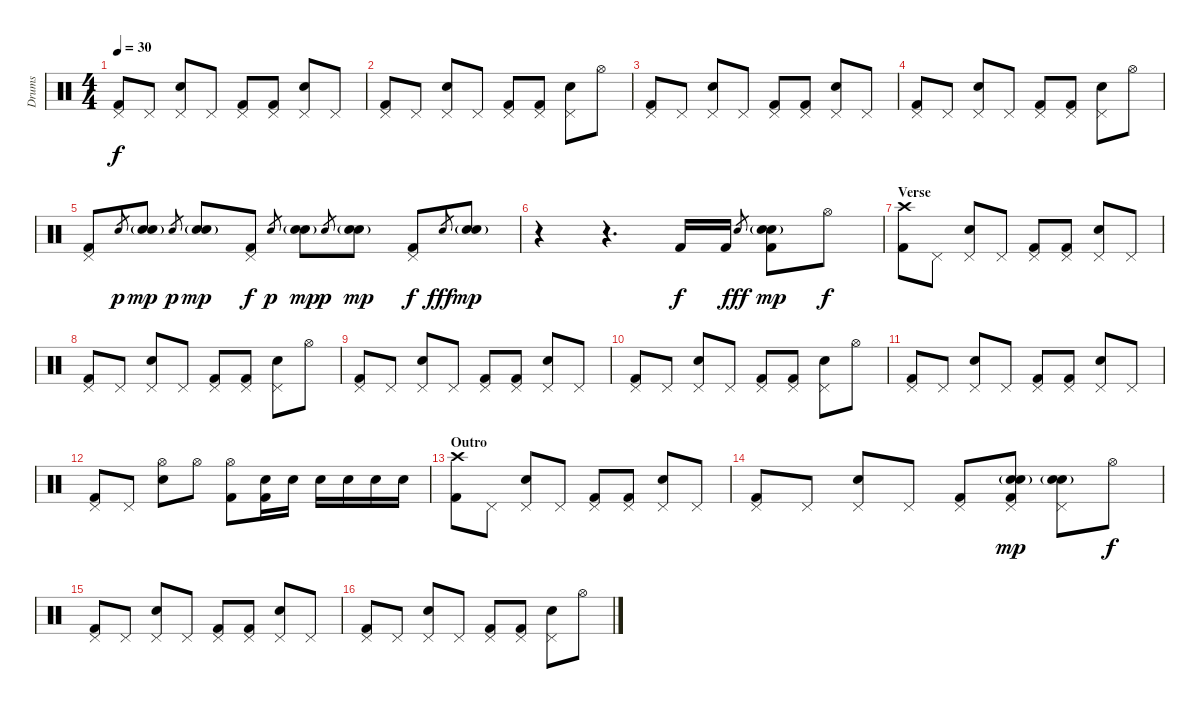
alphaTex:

\track ("Drums" "Drums") {instrument percussion}
\staff {score}
\articulation defaults
\ts (4 4)
\tempo 30
\clef neutral
\ks c
("Pedal Hi-Hat (hit)" "Kick (hit) 2").8{dy f} "Pedal Hi-Hat (hit)".8 ("Pedal Hi-Hat (hit)" "Snare (hit) 2").8 "Pedal Hi-Hat (hit)".8 ("Pedal Hi-Hat (hit)" "Kick (hit) 2").8 ("Pedal Hi-Hat (hit)" "Kick (hit) 2").8 ("Pedal Hi-Hat (hit)" "Snare (hit) 2").8 "Pedal Hi-Hat (hit)".8 |
("Pedal Hi-Hat (hit)" "Kick (hit) 2").8 "Pedal Hi-Hat (hit)".8 ("Pedal Hi-Hat (hit)" "Snare (hit) 2").8 "Pedal Hi-Hat (hit)".8 ("Pedal Hi-Hat (hit)" "Kick (hit) 2").8 ("Pedal Hi-Hat (hit)" "Kick (hit) 2").8 ("Pedal Hi-Hat (hit)" "Snare (hit) 2").8 "Hi-Hat (open)".8 |
("Pedal Hi-Hat (hit)" "Kick (hit) 2").8 "Pedal Hi-Hat (hit)".8 ("Pedal Hi-Hat (hit)" "Snare (hit) 2").8 "Pedal Hi-Hat (hit)".8 ("Pedal Hi-Hat (hit)" "Kick (hit) 2").8 ("Pedal Hi-Hat (hit)" "Kick (hit) 2").8 ("Pedal Hi-Hat (hit)" "Snare (hit) 2").8 "Pedal Hi-Hat (hit)".8 |
("Pedal Hi-Hat (hit)" "Kick (hit) 2").8 "Pedal Hi-Hat (hit)".8 ("Pedal Hi-Hat (hit)" "Snare (hit) 2").8 "Pedal Hi-Hat (hit)".8 ("Pedal Hi-Hat (hit)" "Kick (hit) 2").8 ("Pedal Hi-Hat (hit)" "Kick (hit) 2").8 ("Pedal Hi-Hat (hit)" "Snare (hit) 2").8 "Hi-Hat (open)".8 |
("Pedal Hi-Hat (hit)" "Kick (hit) 2").8 "Snare (hit) 2".8{gr dy p} ("Snare (hit) 2" "Electric Snare (hit)"{g}).8{dy mp} "Snare (hit) 2".8{gr dy p} ("Snare (hit) 2" "Electric Snare (hit)"{g}).8{dy mp} ("Pedal Hi-Hat (hit)" "Kick (hit) 2").8{dy f} "Snare (hit) 2".8{gr dy p} ("Snare (hit) 2" "Electric Snare (hit)"{g}).8{dy mp} "Snare (hit) 2".8{gr dy p} ("Snare (hit) 2" "Electric Snare (hit)"{g}).8{dy mp} ("Pedal Hi-Hat (hit)" "Kick (hit) 2").8{dy f} "Snare (hit) 2".8{gr dy fff} ("Snare (hit) 2" "Electric Snare (hit)"{g}).8{dy mp} |
r.4 r.4{d} "Kick (hit) 2".16{dy f} "Kick (hit) 2".16 "Snare (hit) 2".8{gr dy fff} ("Snare (hit) 2" "Electric Snare (hit)"{g} "Kick (hit) 2").8{dy mp} "Hi-Hat (open)".8{dy f} |
\section ("" "Verse")
("Crash high (hit)" "Kick (hit) 2").8 "Pedal Hi-Hat (hit)".8 ("Pedal Hi-Hat (hit)" "Snare (hit) 2").8 "Pedal Hi-Hat (hit)".8 ("Pedal Hi-Hat (hit)" "Kick (hit) 2").8 ("Pedal Hi-Hat (hit)" "Kick (hit) 2").8 ("Pedal Hi-Hat (hit)" "Snare (hit) 2").8 "Pedal Hi-Hat (hit)".8 |
("Pedal Hi-Hat (hit)" "Kick (hit) 2").8 "Pedal Hi-Hat (hit)".8 ("Pedal Hi-Hat (hit)" "Snare (hit) 2").8 "Pedal Hi-Hat (hit)".8 ("Pedal Hi-Hat (hit)" "Kick (hit) 2").8 ("Pedal Hi-Hat (hit)" "Kick (hit) 2").8 ("Pedal Hi-Hat (hit)" "Snare (hit) 2").8 "Hi-Hat (open)".8 |
("Pedal Hi-Hat (hit)" "Kick (hit) 2").8 "Pedal Hi-Hat (hit)".8 ("Pedal Hi-Hat (hit)" "Snare (hit) 2").8 "Pedal Hi-Hat (hit)".8 ("Pedal Hi-Hat (hit)" "Kick (hit) 2").8 ("Pedal Hi-Hat (hit)" "Kick (hit) 2").8 ("Pedal Hi-Hat (hit)" "Snare (hit) 2").8 "Pedal Hi-Hat (hit)".8 |
("Pedal Hi-Hat (hit)" "Kick (hit) 2").8 "Pedal Hi-Hat (hit)".8 ("Pedal Hi-Hat (hit)" "Snare (hit) 2").8 "Pedal Hi-Hat (hit)".8 ("Pedal Hi-Hat (hit)" "Kick (hit) 2").8 ("Pedal Hi-Hat (hit)" "Kick (hit) 2").8 ("Pedal Hi-Hat (hit)" "Snare (hit) 2").8 "Hi-Hat (open)".8 |
("Pedal Hi-Hat (hit)" "Kick (hit) 2").8 "Pedal Hi-Hat (hit)".8 ("Pedal Hi-Hat (hit)" "Snare (hit) 2").8 "Pedal Hi-Hat (hit)".8 ("Pedal Hi-Hat (hit)" "Kick (hit) 2").8 ("Pedal Hi-Hat (hit)" "Kick (hit) 2").8 ("Pedal Hi-Hat (hit)" "Snare (hit) 2").8 "Pedal Hi-Hat (hit)".8 |
("Pedal Hi-Hat (hit)" "Kick (hit) 2").8 "Pedal Hi-Hat (hit)".8 ("Hi-Hat (open)" "Snare (hit) 2").8 "Hi-Hat (open)".8 ("Hi-Hat (open)" "Kick (hit) 2").8 ("Snare (hit) 2" "Kick (hit) 2").16 "Snare (hit) 2".16 "Snare (hit) 2".16 "Snare (hit) 2".16 "Snare (hit) 2".16 "Snare (hit) 2".16 |
\section ("" "Outro")
("Crash high (hit)" "Kick (hit) 2").8 "Pedal Hi-Hat (hit)".8 ("Pedal Hi-Hat (hit)" "Snare (hit) 2").8 "Pedal Hi-Hat (hit)".8 ("Pedal Hi-Hat (hit)" "Kick (hit) 2").8 ("Pedal Hi-Hat (hit)" "Kick (hit) 2").8 ("Pedal Hi-Hat (hit)" "Snare (hit) 2").8 "Pedal Hi-Hat (hit)".8 |
("Pedal Hi-Hat (hit)" "Kick (hit) 2").8 "Pedal Hi-Hat (hit)".8 ("Pedal Hi-Hat (hit)" "Snare (hit) 2").8 "Pedal Hi-Hat (hit)".8 ("Pedal Hi-Hat (hit)" "Kick (hit) 2").8 ("Pedal Hi-Hat (hit)" "Snare (hit) 2" "Electric Snare (hit)"{g} "Kick (hit) 2").8{dy mp} ("Pedal Hi-Hat (hit)" "Snare (hit) 2" "Electric Snare (hit)"{g}).8 "Hi-Hat (open)".8{dy f} |
("Pedal Hi-Hat (hit)" "Kick (hit) 2").8 "Pedal Hi-Hat (hit)".8 ("Pedal Hi-Hat (hit)" "Snare (hit) 2").8 "Pedal Hi-Hat (hit)".8 ("Pedal Hi-Hat (hit)" "Kick (hit) 2").8 ("Pedal Hi-Hat (hit)" "Kick (hit) 2").8 ("Pedal Hi-Hat (hit)" "Snare (hit) 2").8 "Pedal Hi-Hat (hit)".8 |
("Pedal Hi-Hat (hit)" "Kick (hit) 2").8 "Pedal Hi-Hat (hit)".8 ("Pedal Hi-Hat (hit)" "Snare (hit) 2").8 "Pedal Hi-Hat (hit)".8 ("Pedal Hi-Hat (hit)" "Kick (hit) 2").8 ("Pedal Hi-Hat (hit)" "Kick (hit) 2").8 ("Pedal Hi-Hat (hit)" "Snare (hit) 2").8 "Hi-Hat (open)".8
